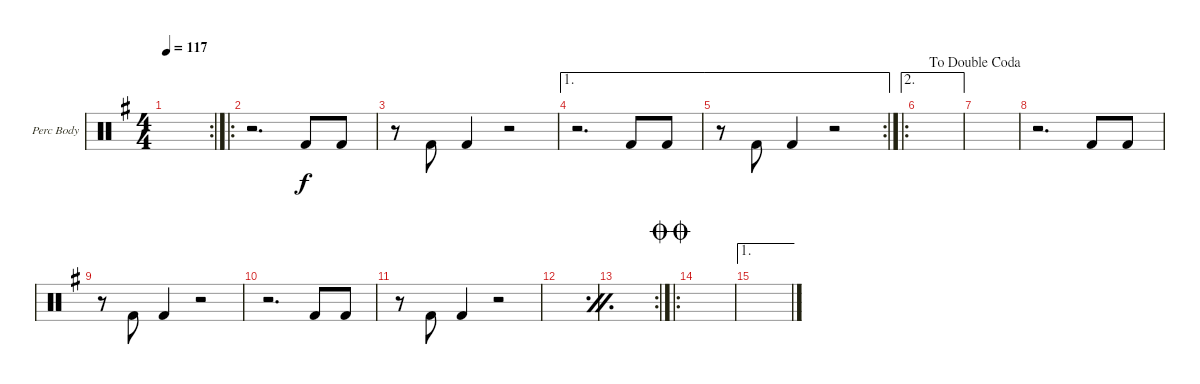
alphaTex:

\defaultSystemsLayout 4
\bracketExtendMode groupsimilarinstruments
\firstSystemTrackNameOrientation horizontal
\otherSystemsTrackNameOrientation horizontal
\track ("Percussive Body" "Perc Body") {instrument percussion}
\staff {score}
\articulation defaults
\rc 2
\ts (4 4)
\tempo 117
\clef neutral
\scale
0.333333
\ks eminor
|
\ro
\scale
0.365079 r.2{d beam Down} "Kick (hit) 2"{acc forcenatural}.8{beam Up} "Kick (hit) 2"{acc forcenatural}.8{beam Up} |
\scale
0.301587 r.8{beam Down} "Kick (hit) 2"{acc forcenatural}.8{beam Up} "Kick (hit) 2"{acc forcenatural}.4{beam Up} r.2{beam Up} |
\ae 1
\scale
0.283206
\scale
0.301587 r.2{d beam Down} "Kick (hit) 2"{acc forcenatural}.8{beam Up} "Kick (hit) 2"{acc forcenatural}.8{beam Up} |
\ae 1
\rc 2
\scale
0.163356
\scale
0.333333 r.8{beam Down} "Kick (hit) 2"{acc forcenatural}.8{beam Up} "Kick (hit) 2"{acc forcenatural}.4{beam Up} r.2{beam Up} |
\ae 2
\ro
\scale
0.329126
\scale
0.365079 |
\scale
0.224595
\jump dadoublecoda
\scale
0.333333 |
\scale
0.333333 r.2{d beam Down} "Kick (hit) 2"{acc forcenatural}.8{beam Up} "Kick (hit) 2"{acc forcenatural}.8{beam Up} |
\scale
0.333333 r.8{beam Down} "Kick (hit) 2"{acc forcenatural}.8{beam Up} "Kick (hit) 2"{acc forcenatural}.4{beam Up} r.2{beam Up} |
\scale
0.333333 r.2{d beam Down} "Kick (hit) 2"{acc forcenatural}.8{beam Up} "Kick (hit) 2"{acc forcenatural}.8{beam Up} |
\scale
0.333333 r.8{beam Down} "Kick (hit) 2"{acc forcenatural}.8{beam Up} "Kick (hit) 2"{acc forcenatural}.4{beam Up} r.2{beam Up} |
\simile firstofdouble
\scale
0.333333 |
\rc 2
\simile secondofdouble
\scale
0.333333 |
\ro
\jump doublecoda
\simile none
\scale
0.365079 |
\ae 1
\scale
0.301587 |
\scale
0.322034
